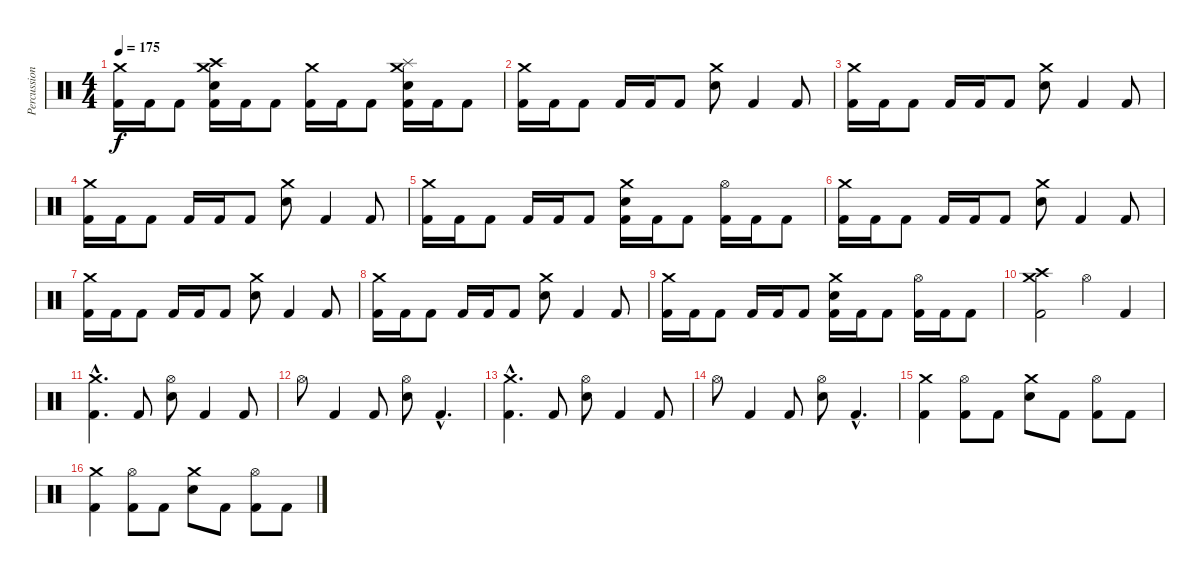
\track ("Percussion" "Percussion") {instrument percussion}
\staff {score}
\articulation defaults
\ts (4 4)
\tempo 175
\clef neutral
\ks c
("Crash medium (hit)" "Kick (hit) 2").16{dy f} "Kick (hit) 2".16 "Kick (hit) 2".8 ("Crash high (hit)" "Crash medium (hit)" "Electric Snare (hit)" "Kick (hit) 2").16 "Kick (hit) 2".16 "Kick (hit) 2".8 ("Crash medium (hit)" "Kick (hit) 2").16 "Kick (hit) 2".16 "Kick (hit) 2".8 ("Splash (hit)" "Crash medium (hit)" "Electric Snare (hit)" "Kick (hit) 2").16 "Kick (hit) 2".16 "Kick (hit) 2".8 |
("Crash medium (hit)" "Kick (hit) 2").16 "Kick (hit) 2".16 "Kick (hit) 2".8 "Kick (hit) 2".16 "Kick (hit) 2".16 "Kick (hit) 2".8 ("Crash medium (hit)" "Electric Snare (hit)").8 "Kick (hit) 2".4 "Kick (hit) 2".8 |
("Crash medium (hit)" "Kick (hit) 2").16 "Kick (hit) 2".16 "Kick (hit) 2".8 "Kick (hit) 2".16 "Kick (hit) 2".16 "Kick (hit) 2".8 ("Crash medium (hit)" "Electric Snare (hit)").8 "Kick (hit) 2".4 "Kick (hit) 2".8 |
("Crash medium (hit)" "Kick (hit) 2").16 "Kick (hit) 2".16 "Kick (hit) 2".8 "Kick (hit) 2".16 "Kick (hit) 2".16 "Kick (hit) 2".8 ("Crash medium (hit)" "Electric Snare (hit)").8 "Kick (hit) 2".4 "Kick (hit) 2".8 |
("Crash medium (hit)" "Kick (hit) 2").16 "Kick (hit) 2".16 "Kick (hit) 2".8 "Kick (hit) 2".16 "Kick (hit) 2".16 "Kick (hit) 2".8 ("Crash medium (hit)" "Electric Snare (hit)" "Kick (hit) 2").16 "Kick (hit) 2".16 "Kick (hit) 2".8 ("Hi-Hat (open)" "Kick (hit) 2").16 "Kick (hit) 2".16 "Kick (hit) 2".8 |
("Crash medium (hit)" "Kick (hit) 2").16 "Kick (hit) 2".16 "Kick (hit) 2".8 "Kick (hit) 2".16 "Kick (hit) 2".16 "Kick (hit) 2".8 ("Crash medium (hit)" "Electric Snare (hit)").8 "Kick (hit) 2".4 "Kick (hit) 2".8 |
("Crash medium (hit)" "Kick (hit) 2").16 "Kick (hit) 2".16 "Kick (hit) 2".8 "Kick (hit) 2".16 "Kick (hit) 2".16 "Kick (hit) 2".8 ("Crash medium (hit)" "Electric Snare (hit)").8 "Kick (hit) 2".4 "Kick (hit) 2".8 |
("Crash medium (hit)" "Kick (hit) 2").16 "Kick (hit) 2".16 "Kick (hit) 2".8 "Kick (hit) 2".16 "Kick (hit) 2".16 "Kick (hit) 2".8 ("Crash medium (hit)" "Electric Snare (hit)").8 "Kick (hit) 2".4 "Kick (hit) 2".8 |
("Crash medium (hit)" "Kick (hit) 2").16 "Kick (hit) 2".16 "Kick (hit) 2".8 "Kick (hit) 2".16 "Kick (hit) 2".16 "Kick (hit) 2".8 ("Crash medium (hit)" "Electric Snare (hit)" "Kick (hit) 2").16 "Kick (hit) 2".16 "Kick (hit) 2".8 ("Hi-Hat (open)" "Kick (hit) 2").16 "Kick (hit) 2".16 "Kick (hit) 2".8 |
("Crash high (hit)" "Crash medium (hit)" "Kick (hit) 2").2 "Hi-Hat (open)".4 "Kick (hit) 2".4 |
("Crash medium (hit)"{hac} "Kick (hit) 2"{hac}).4{d} "Kick (hit) 2".8 ("Hi-Hat (open)" "Electric Snare (hit)").8 "Kick (hit) 2".4 "Kick (hit) 2".8 |
"Hi-Hat (open)".8 "Kick (hit) 2".4 "Kick (hit) 2".8 ("Hi-Hat (open)" "Electric Snare (hit)").8 "Kick (hit) 2"{hac}.4{d} |
("Crash medium (hit)"{hac} "Kick (hit) 2"{hac}).4{d} "Kick (hit) 2".8 ("Hi-Hat (open)" "Electric Snare (hit)").8 "Kick (hit) 2".4 "Kick (hit) 2".8 |
"Hi-Hat (open)".8 "Kick (hit) 2".4 "Kick (hit) 2".8 ("Hi-Hat (open)" "Electric Snare (hit)").8 "Kick (hit) 2"{hac}.4{d} |
("Crash medium (hit)" "Kick (hit) 2").4 ("Hi-Hat (open)" "Kick (hit) 2").8 "Kick (hit) 2".8 ("Crash medium (hit)" "Electric Snare (hit)").8 "Kick (hit) 2".8 ("Hi-Hat (open)" "Kick (hit) 2").8 "Kick (hit) 2".8 |
("Crash medium (hit)" "Kick (hit) 2").4 ("Hi-Hat (open)" "Kick (hit) 2").8 "Kick (hit) 2".8 ("Crash medium (hit)" "Electric Snare (hit)").8 "Kick (hit) 2".8 ("Hi-Hat (open)" "Kick (hit) 2").8 "Kick (hit) 2".8
